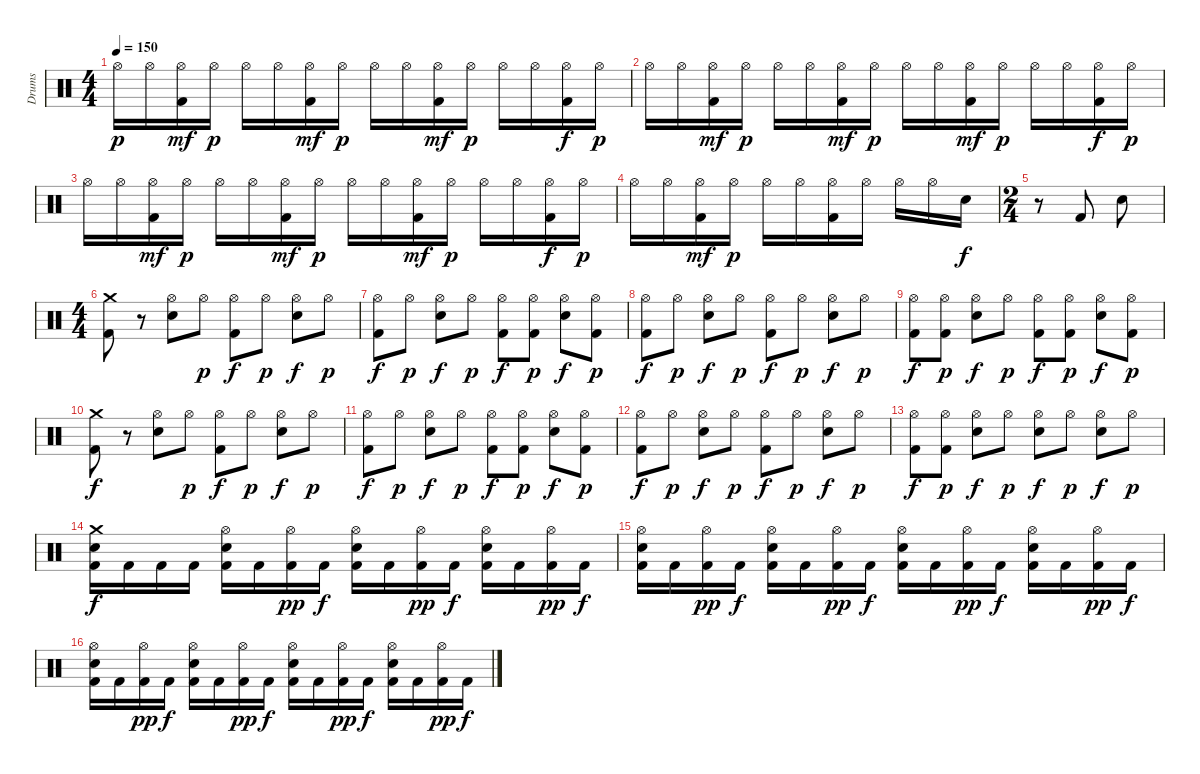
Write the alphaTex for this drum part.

\track ("Drums" "Drums") {instrument percussion}
\staff {score}
\articulation defaults
\ts (4 4)
\tempo 150
\clef neutral
\ks c "Hi-Hat (open)".16{dy p} "Hi-Hat (open)".16
("Hi-Hat (open)" "Kick (hit) 2").16{dy mf} "Hi-Hat (open)".16{dy p} "Hi-Hat (open)".16 "Hi-Hat (open)".16 ("Hi-Hat (open)" "Kick (hit) 2").16{dy mf} "Hi-Hat (open)".16{dy p} "Hi-Hat (open)".16 "Hi-Hat (open)".16 ("Hi-Hat (open)" "Kick (hit) 2").16{dy mf} "Hi-Hat (open)".16{dy p} "Hi-Hat (open)".16 "Hi-Hat (open)".16 ("Hi-Hat (open)" "Kick (hit) 2").16{dy f} "Hi-Hat (open)".16{dy p} |
"Hi-Hat (open)".16 "Hi-Hat (open)".16 ("Hi-Hat (open)" "Kick (hit) 2").16{dy mf} "Hi-Hat (open)".16{dy p} "Hi-Hat (open)".16 "Hi-Hat (open)".16 ("Hi-Hat (open)" "Kick (hit) 2").16{dy mf} "Hi-Hat (open)".16{dy p} "Hi-Hat (open)".16 "Hi-Hat (open)".16 ("Hi-Hat (open)" "Kick (hit) 2").16{dy mf} "Hi-Hat (open)".16{dy p} "Hi-Hat (open)".16 "Hi-Hat (open)".16 ("Hi-Hat (open)" "Kick (hit) 2").16{dy f} "Hi-Hat (open)".16{dy p} |
"Hi-Hat (open)".16 "Hi-Hat (open)".16 ("Hi-Hat (open)" "Kick (hit) 2").16{dy mf} "Hi-Hat (open)".16{dy p} "Hi-Hat (open)".16 "Hi-Hat (open)".16 ("Hi-Hat (open)" "Kick (hit) 2").16{dy mf} "Hi-Hat (open)".16{dy p} "Hi-Hat (open)".16 "Hi-Hat (open)".16 ("Hi-Hat (open)" "Kick (hit) 2").16{dy mf} "Hi-Hat (open)".16{dy p} "Hi-Hat (open)".16 "Hi-Hat (open)".16 ("Hi-Hat (open)" "Kick (hit) 2").16{dy f} "Hi-Hat (open)".16{dy p} |
"Hi-Hat (open)".16 "Hi-Hat (open)".16 ("Hi-Hat (open)" "Kick (hit) 2").16{dy mf} "Hi-Hat (open)".16{dy p} "Hi-Hat (open)".16 "Hi-Hat (open)".16 ("Hi-Hat (open)" "Kick (hit) 2").16 "Hi-Hat (open)".16 "Hi-Hat (open)".16 "Hi-Hat (open)".16 "Snare (hit) 2".16{dy f} |
\ts (2 4)
r.8 "Kick (hit) 2".8 "Snare (hit) 2".8 |
\ts (4 4)
("Crash medium (hit)" "Kick (hit) 2").8 r.8 ("Hi-Hat (open)" "Snare (hit) 2").8 "Hi-Hat (open)".8{dy p} ("Hi-Hat (open)" "Kick (hit) 2").8{dy f} "Hi-Hat (open)".8{dy p} ("Hi-Hat (open)" "Snare (hit) 2").8{dy f} "Hi-Hat (open)".8{dy p} |
("Hi-Hat (open)" "Kick (hit) 2").8{dy f} "Hi-Hat (open)".8{dy p} ("Hi-Hat (open)" "Snare (hit) 2").8{dy f} "Hi-Hat (open)".8{dy p} ("Hi-Hat (open)" "Kick (hit) 2").8{dy f} ("Hi-Hat (open)" "Kick (hit) 2").8{dy p} ("Hi-Hat (open)" "Snare (hit) 2").8{dy f} ("Hi-Hat (open)" "Kick (hit) 2").8{dy p} |
("Hi-Hat (open)" "Kick (hit) 2").8{dy f} "Hi-Hat (open)".8{dy p} ("Hi-Hat (open)" "Snare (hit) 2").8{dy f} "Hi-Hat (open)".8{dy p} ("Hi-Hat (open)" "Kick (hit) 2").8{dy f} "Hi-Hat (open)".8{dy p} ("Hi-Hat (open)" "Snare (hit) 2").8{dy f} "Hi-Hat (open)".8{dy p} |
("Hi-Hat (open)" "Kick (hit) 2").8{dy f} ("Hi-Hat (open)" "Kick (hit) 2").8{dy p} ("Hi-Hat (open)" "Snare (hit) 2").8{dy f} "Hi-Hat (open)".8{dy p} ("Hi-Hat (open)" "Kick (hit) 2").8{dy f} ("Hi-Hat (open)" "Kick (hit) 2").8{dy p} ("Hi-Hat (open)" "Snare (hit) 2").8{dy f} ("Hi-Hat (open)" "Kick (hit) 2").8{dy p} |
("Crash medium (hit)" "Kick (hit) 2").8{dy f} r.8 ("Hi-Hat (open)" "Snare (hit) 2").8 "Hi-Hat (open)".8{dy p} ("Hi-Hat (open)" "Kick (hit) 2").8{dy f} "Hi-Hat (open)".8{dy p} ("Hi-Hat (open)" "Snare (hit) 2").8{dy f} "Hi-Hat (open)".8{dy p} |
("Hi-Hat (open)" "Kick (hit) 2").8{dy f} "Hi-Hat (open)".8{dy p} ("Hi-Hat (open)" "Snare (hit) 2").8{dy f} "Hi-Hat (open)".8{dy p} ("Hi-Hat (open)" "Kick (hit) 2").8{dy f} ("Hi-Hat (open)" "Kick (hit) 2").8{dy p} ("Hi-Hat (open)" "Snare (hit) 2").8{dy f} ("Hi-Hat (open)" "Kick (hit) 2").8{dy p} |
("Hi-Hat (open)" "Kick (hit) 2").8{dy f} "Hi-Hat (open)".8{dy p} ("Hi-Hat (open)" "Snare (hit) 2").8{dy f} "Hi-Hat (open)".8{dy p} ("Hi-Hat (open)" "Kick (hit) 2").8{dy f} "Hi-Hat (open)".8{dy p} ("Hi-Hat (open)" "Snare (hit) 2").8{dy f} "Hi-Hat (open)".8{dy p} |
("Hi-Hat (open)" "Kick (hit) 2").8{dy f} ("Hi-Hat (open)" "Kick (hit) 2").8{dy p} ("Hi-Hat (open)" "Snare (hit) 2").8{dy f} "Hi-Hat (open)".8{dy p} ("Hi-Hat (open)" "Snare (hit) 2").8{dy f} "Hi-Hat (open)".8{dy p} ("Hi-Hat (open)" "Snare (hit) 2").8{dy f} "Hi-Hat (open)".8{dy p} |
("Crash medium (hit)" "Snare (hit) 2" "Kick (hit) 2").16{dy f} "Kick (hit) 2".16 "Kick (hit) 2".16 "Kick (hit) 2".16 ("Hi-Hat (open)" "Snare (hit) 2" "Kick (hit) 2").16 "Kick (hit) 2".16 ("Hi-Hat (open)" "Kick (hit) 2").16{dy pp} "Kick (hit) 2".16{dy f} ("Hi-Hat (open)" "Snare (hit) 2" "Kick (hit) 2").16 "Kick (hit) 2".16 ("Hi-Hat (open)" "Kick (hit) 2").16{dy pp} "Kick (hit) 2".16{dy f} ("Hi-Hat (open)" "Snare (hit) 2" "Kick (hit) 2").16 "Kick (hit) 2".16 ("Hi-Hat (open)" "Kick (hit) 2").16{dy pp} "Kick (hit) 2".16{dy f} |
("Hi-Hat (open)" "Snare (hit) 2" "Kick (hit) 2").16 "Kick (hit) 2".16 ("Hi-Hat (open)" "Kick (hit) 2").16{dy pp} "Kick (hit) 2".16{dy f} ("Hi-Hat (open)" "Snare (hit) 2" "Kick (hit) 2").16 "Kick (hit) 2".16 ("Hi-Hat (open)" "Kick (hit) 2").16{dy pp} "Kick (hit) 2".16{dy f} ("Hi-Hat (open)" "Snare (hit) 2" "Kick (hit) 2").16 "Kick (hit) 2".16 ("Hi-Hat (open)" "Kick (hit) 2").16{dy pp} "Kick (hit) 2".16{dy f} ("Hi-Hat (open)" "Snare (hit) 2" "Kick (hit) 2").16 "Kick (hit) 2".16 ("Hi-Hat (open)" "Kick (hit) 2").16{dy pp} "Kick (hit) 2".16{dy f} |
("Hi-Hat (open)" "Snare (hit) 2" "Kick (hit) 2").16 "Kick (hit) 2".16 ("Hi-Hat (open)" "Kick (hit) 2").16{dy pp} "Kick (hit) 2".16{dy f} ("Hi-Hat (open)" "Snare (hit) 2" "Kick (hit) 2").16 "Kick (hit) 2".16 ("Hi-Hat (open)" "Kick (hit) 2").16{dy pp} "Kick (hit) 2".16{dy f} ("Hi-Hat (open)" "Snare (hit) 2" "Kick (hit) 2").16 "Kick (hit) 2".16 ("Hi-Hat (open)" "Kick (hit) 2").16{dy pp} "Kick (hit) 2".16{dy f} ("Hi-Hat (open)" "Snare (hit) 2" "Kick (hit) 2").16 "Kick (hit) 2".16 ("Hi-Hat (open)" "Kick (hit) 2").16{dy pp} "Kick (hit) 2".16{dy f}
